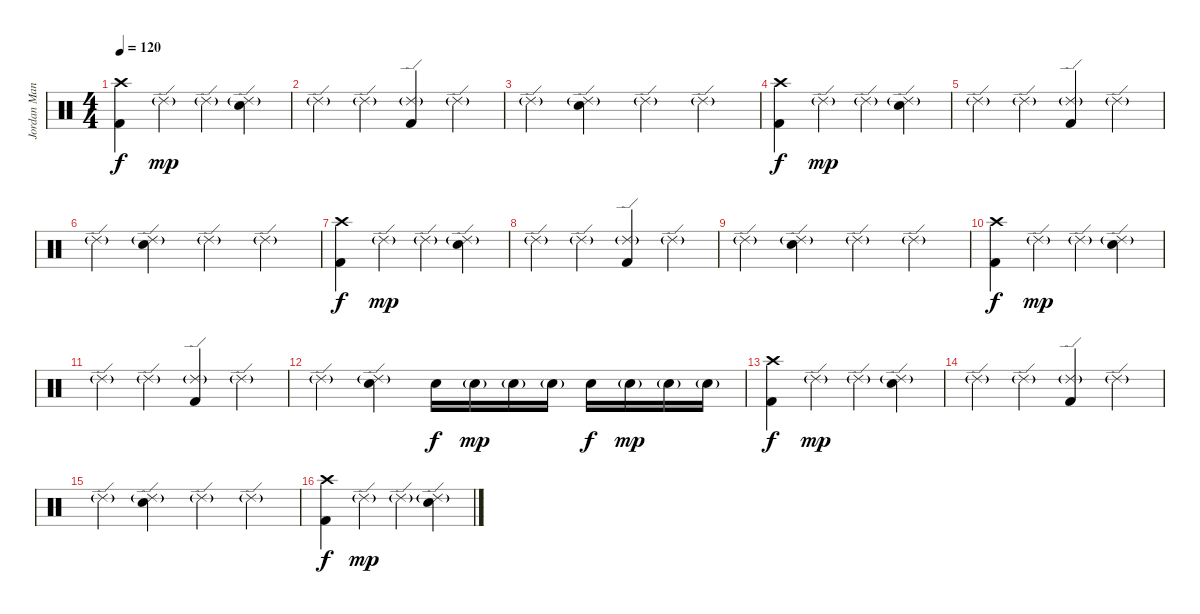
\track ("Jordan Mancino - Drums" "Jordan Man") {instrument percussion}
\staff {score}
\articulation defaults
\ts (4 4)
\tempo 120
\clef neutral
\ks c
("Kick (hit) 2" "Crash high (hit)").4{dy f} "Ride (edge) 2"{g}.4{dy mp} "Ride (edge) 2"{g}.4 ("Snare (hit) 2" "Ride (edge) 2"{g}).4 |
"Ride (edge) 2"{g}.4 "Ride (edge) 2"{g}.4 ("Kick (hit) 2" "Ride (edge) 2"{g}).4 "Ride (edge) 2"{g}.4 |
"Ride (edge) 2"{g}.4 ("Snare (hit) 2" "Ride (edge) 2"{g}).4 "Ride (edge) 2"{g}.4 "Ride (edge) 2"{g}.4 |
("Kick (hit) 2" "Crash high (hit)").4{dy f} "Ride (edge) 2"{g}.4{dy mp} "Ride (edge) 2"{g}.4 ("Snare (hit) 2" "Ride (edge) 2"{g}).4 |
"Ride (edge) 2"{g}.4 "Ride (edge) 2"{g}.4 ("Kick (hit) 2" "Ride (edge) 2"{g}).4 "Ride (edge) 2"{g}.4 |
"Ride (edge) 2"{g}.4 ("Snare (hit) 2" "Ride (edge) 2"{g}).4 "Ride (edge) 2"{g}.4 "Ride (edge) 2"{g}.4 |
("Kick (hit) 2" "Crash high (hit)").4{dy f} "Ride (edge) 2"{g}.4{dy mp} "Ride (edge) 2"{g}.4 ("Snare (hit) 2" "Ride (edge) 2"{g}).4 |
"Ride (edge) 2"{g}.4 "Ride (edge) 2"{g}.4 ("Kick (hit) 2" "Ride (edge) 2"{g}).4 "Ride (edge) 2"{g}.4 |
"Ride (edge) 2"{g}.4 ("Snare (hit) 2" "Ride (edge) 2"{g}).4 "Ride (edge) 2"{g}.4 "Ride (edge) 2"{g}.4 |
("Kick (hit) 2" "Crash high (hit)").4{dy f} "Ride (edge) 2"{g}.4{dy mp} "Ride (edge) 2"{g}.4 ("Snare (hit) 2" "Ride (edge) 2"{g}).4 |
"Ride (edge) 2"{g}.4 "Ride (edge) 2"{g}.4 ("Kick (hit) 2" "Ride (edge) 2"{g}).4 "Ride (edge) 2"{g}.4 |
"Ride (edge) 2"{g}.4 ("Snare (hit) 2" "Ride (edge) 2"{g}).4 "Snare (hit) 2".16{dy f} "Snare (hit) 2"{g}.16{dy mp} "Snare (hit) 2"{g}.16 "Snare (hit) 2"{g}.16 "Snare (hit) 2".16{dy f} "Snare (hit) 2"{g}.16{dy mp} "Snare (hit) 2"{g}.16 "Snare (hit) 2"{g}.16 |
("Kick (hit) 2" "Crash high (hit)").4{dy f} "Ride (edge) 2"{g}.4{dy mp} "Ride (edge) 2"{g}.4 ("Snare (hit) 2" "Ride (edge) 2"{g}).4 |
"Ride (edge) 2"{g}.4 "Ride (edge) 2"{g}.4 ("Kick (hit) 2" "Ride (edge) 2"{g}).4 "Ride (edge) 2"{g}.4 |
"Ride (edge) 2"{g}.4 ("Snare (hit) 2" "Ride (edge) 2"{g}).4 "Ride (edge) 2"{g}.4 "Ride (edge) 2"{g}.4 |
("Kick (hit) 2" "Crash high (hit)").4{dy f} "Ride (edge) 2"{g}.4{dy mp} "Ride (edge) 2"{g}.4 ("Snare (hit) 2" "Ride (edge) 2"{g}).4
